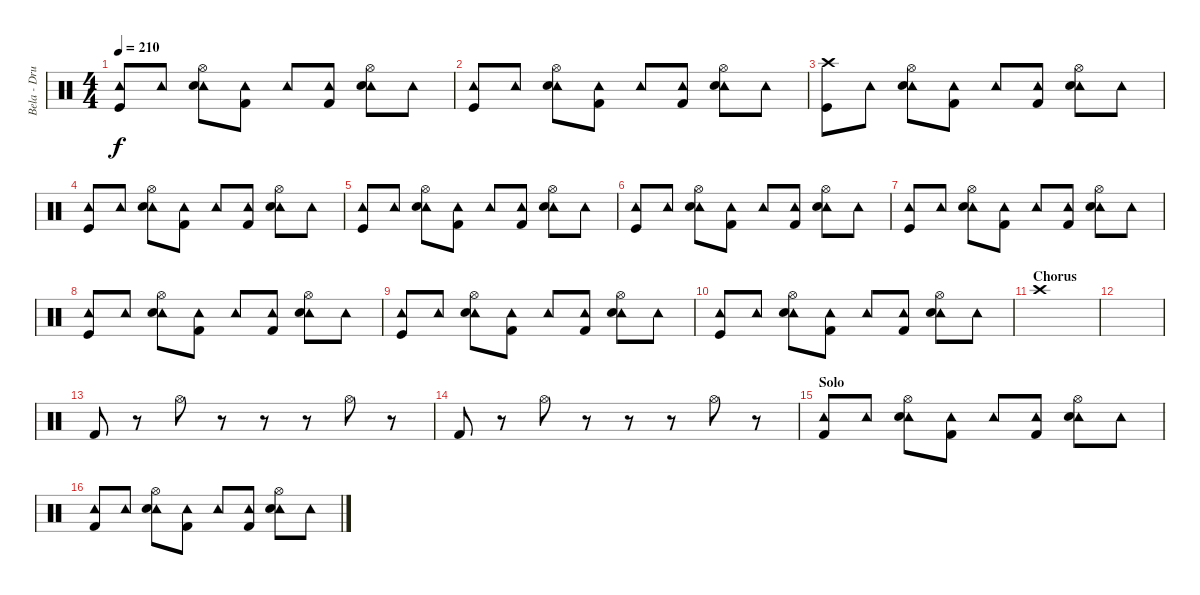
\track ("Bela - Drums" "Bela - Dru") {instrument percussion}
\staff {score}
\articulation defaults
\ts (4 4)
\tempo 210
\clef neutral
\ks c
("Tambourine (hit)" "Kick (hit)").8{dy f} "Tambourine (hit)".8 ("Tambourine (hit)" "Electric Snare (hit)" "Hi-Hat (open)").8 ("Tambourine (hit)" "Kick (hit) 2").8 "Tambourine (hit)".8 ("Tambourine (hit)" "Kick (hit) 2").8 ("Tambourine (hit)" "Electric Snare (hit)" "Hi-Hat (open)").8 "Tambourine (hit)".8 |
("Tambourine (hit)" "Kick (hit)").8 "Tambourine (hit)".8 ("Tambourine (hit)" "Electric Snare (hit)" "Hi-Hat (open)").8 ("Tambourine (hit)" "Kick (hit) 2").8 "Tambourine (hit)".8 ("Tambourine (hit)" "Kick (hit) 2").8 ("Tambourine (hit)" "Electric Snare (hit)" "Hi-Hat (open)").8 "Tambourine (hit)".8 |
("Crash high (hit)" "Kick (hit)").8 "Tambourine (hit)".8 ("Tambourine (hit)" "Electric Snare (hit)" "Hi-Hat (open)").8 ("Tambourine (hit)" "Kick (hit) 2").8 "Tambourine (hit)".8 ("Tambourine (hit)" "Kick (hit) 2").8 ("Tambourine (hit)" "Electric Snare (hit)" "Hi-Hat (open)").8 "Tambourine (hit)".8 |
("Tambourine (hit)" "Kick (hit)").8 "Tambourine (hit)".8 ("Tambourine (hit)" "Electric Snare (hit)" "Hi-Hat (open)").8 ("Tambourine (hit)" "Kick (hit) 2").8 "Tambourine (hit)".8 ("Tambourine (hit)" "Kick (hit) 2").8 ("Tambourine (hit)" "Electric Snare (hit)" "Hi-Hat (open)").8 "Tambourine (hit)".8 |
("Tambourine (hit)" "Kick (hit)").8 "Tambourine (hit)".8 ("Tambourine (hit)" "Electric Snare (hit)" "Hi-Hat (open)").8 ("Tambourine (hit)" "Kick (hit) 2").8 "Tambourine (hit)".8 ("Tambourine (hit)" "Kick (hit) 2").8 ("Tambourine (hit)" "Electric Snare (hit)" "Hi-Hat (open)").8 "Tambourine (hit)".8 |
("Tambourine (hit)" "Kick (hit)").8 "Tambourine (hit)".8 ("Tambourine (hit)" "Electric Snare (hit)" "Hi-Hat (open)").8 ("Tambourine (hit)" "Kick (hit) 2").8 "Tambourine (hit)".8 ("Tambourine (hit)" "Kick (hit) 2").8 ("Tambourine (hit)" "Electric Snare (hit)" "Hi-Hat (open)").8 "Tambourine (hit)".8 |
("Tambourine (hit)" "Kick (hit)").8 "Tambourine (hit)".8 ("Tambourine (hit)" "Electric Snare (hit)" "Hi-Hat (open)").8 ("Tambourine (hit)" "Kick (hit) 2").8 "Tambourine (hit)".8 ("Tambourine (hit)" "Kick (hit) 2").8 ("Tambourine (hit)" "Electric Snare (hit)" "Hi-Hat (open)").8 "Tambourine (hit)".8 |
("Tambourine (hit)" "Kick (hit)").8 "Tambourine (hit)".8 ("Tambourine (hit)" "Electric Snare (hit)" "Hi-Hat (open)").8 ("Tambourine (hit)" "Kick (hit) 2").8 "Tambourine (hit)".8 ("Tambourine (hit)" "Kick (hit) 2").8 ("Tambourine (hit)" "Electric Snare (hit)" "Hi-Hat (open)").8 "Tambourine (hit)".8 |
("Tambourine (hit)" "Kick (hit)").8 "Tambourine (hit)".8 ("Tambourine (hit)" "Electric Snare (hit)" "Hi-Hat (open)").8 ("Tambourine (hit)" "Kick (hit) 2").8 "Tambourine (hit)".8 ("Tambourine (hit)" "Kick (hit) 2").8 ("Tambourine (hit)" "Electric Snare (hit)" "Hi-Hat (open)").8 "Tambourine (hit)".8 |
("Tambourine (hit)" "Kick (hit)").8 "Tambourine (hit)".8 ("Tambourine (hit)" "Electric Snare (hit)" "Hi-Hat (open)").8 ("Tambourine (hit)" "Kick (hit) 2").8 "Tambourine (hit)".8 ("Tambourine (hit)" "Kick (hit) 2").8 ("Tambourine (hit)" "Electric Snare (hit)" "Hi-Hat (open)").8 "Tambourine (hit)".8 |
\section ("" "Chorus")
"Crash high (hit)".1 |
|
"Kick (hit) 2".8 r.8 "Hi-Hat (open)".8 r.8 r.8 r.8 "Hi-Hat (open)".8 r.8 |
"Kick (hit) 2".8 r.8 "Hi-Hat (open)".8 r.8 r.8 r.8 "Hi-Hat (open)".8 r.8 |
\section ("" "Solo")
("Tambourine (hit)" "Kick (hit) 2").8 "Tambourine (hit)".8 ("Tambourine (hit)" "Electric Snare (hit)" "Hi-Hat (open)").8 ("Tambourine (hit)" "Kick (hit) 2").8 "Tambourine (hit)".8 ("Tambourine (hit)" "Kick (hit) 2").8 ("Tambourine (hit)" "Electric Snare (hit)" "Hi-Hat (open)").8 "Tambourine (hit)".8 |
("Tambourine (hit)" "Kick (hit) 2").8 "Tambourine (hit)".8 ("Tambourine (hit)" "Electric Snare (hit)" "Hi-Hat (open)").8 ("Tambourine (hit)" "Kick (hit) 2").8 "Tambourine (hit)".8 ("Tambourine (hit)" "Kick (hit) 2").8 ("Tambourine (hit)" "Electric Snare (hit)" "Hi-Hat (open)").8 "Tambourine (hit)".8
